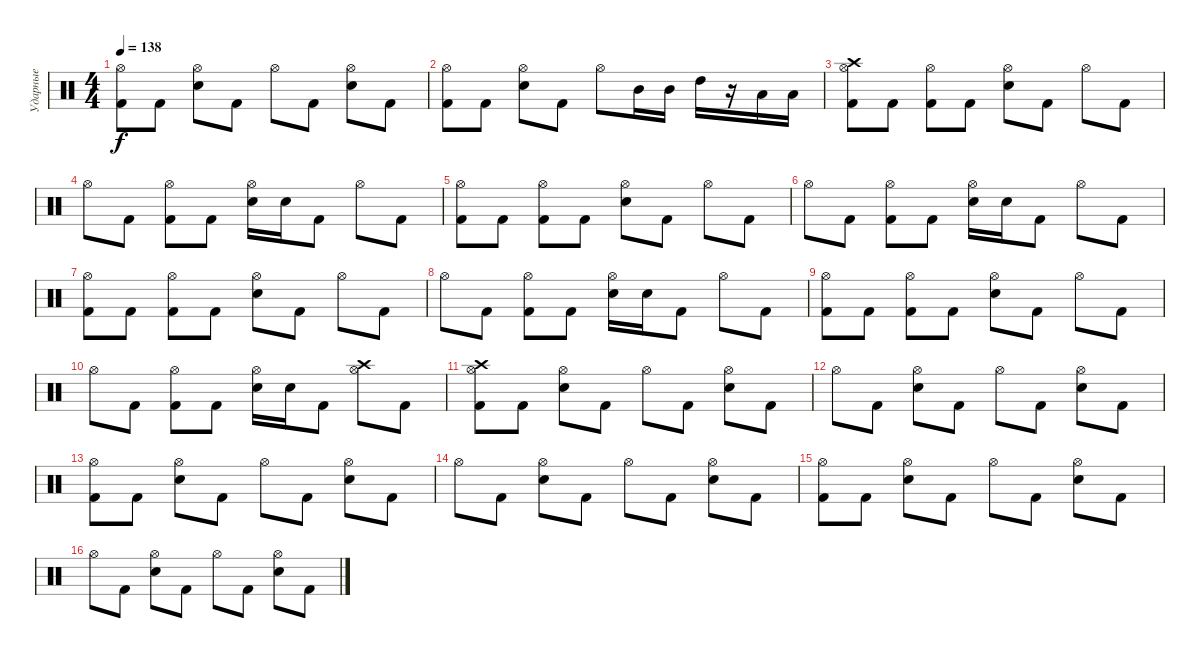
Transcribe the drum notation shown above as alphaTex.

\track ("Ударные" "Ударные") {instrument percussion}
\staff {score}
\articulation defaults
\ts (4 4)
\tempo 138
\clef neutral
\ks c
("Hi-Hat (open)" "Kick (hit) 2").8{dy f} "Kick (hit) 2".8 ("Electric Snare (hit)" "Hi-Hat (open)").8 "Kick (hit) 2".8 "Hi-Hat (open)".8 "Kick (hit) 2".8 ("Electric Snare (hit)" "Hi-Hat (open)").8 "Kick (hit) 2".8 |
("Hi-Hat (open)" "Kick (hit) 2").8 "Kick (hit) 2".8 ("Electric Snare (hit)" "Hi-Hat (open)").8 "Kick (hit) 2".8 "Hi-Hat (open)".8 "Mid Tom (hit)".16 "Mid Tom (hit)".16 "High Tom (hit)".16 r.16 "Low Tom (hit)".16 "Low Tom (hit)".16 |
("Crash high (hit)" "Hi-Hat (open)" "Kick (hit) 2").8 "Kick (hit) 2".8 ("Hi-Hat (open)" "Kick (hit) 2").8 "Kick (hit) 2".8 ("Electric Snare (hit)" "Hi-Hat (open)").8 "Kick (hit) 2".8 "Hi-Hat (open)".8 "Kick (hit) 2".8 |
"Hi-Hat (open)".8 "Kick (hit) 2".8 ("Hi-Hat (open)" "Kick (hit) 2").8 "Kick (hit) 2".8 ("Electric Snare (hit)" "Hi-Hat (open)").16 "Electric Snare (hit)".16 "Kick (hit) 2".8 "Hi-Hat (open)".8 "Kick (hit) 2".8 |
("Hi-Hat (open)" "Kick (hit) 2").8 "Kick (hit) 2".8 ("Hi-Hat (open)" "Kick (hit) 2").8 "Kick (hit) 2".8 ("Electric Snare (hit)" "Hi-Hat (open)").8 "Kick (hit) 2".8 "Hi-Hat (open)".8 "Kick (hit) 2".8 |
"Hi-Hat (open)".8 "Kick (hit) 2".8 ("Hi-Hat (open)" "Kick (hit) 2").8 "Kick (hit) 2".8 ("Electric Snare (hit)" "Hi-Hat (open)").16 "Electric Snare (hit)".16 "Kick (hit) 2".8 "Hi-Hat (open)".8 "Kick (hit) 2".8 |
("Hi-Hat (open)" "Kick (hit) 2").8 "Kick (hit) 2".8 ("Hi-Hat (open)" "Kick (hit) 2").8 "Kick (hit) 2".8 ("Electric Snare (hit)" "Hi-Hat (open)").8 "Kick (hit) 2".8 "Hi-Hat (open)".8 "Kick (hit) 2".8 |
"Hi-Hat (open)".8 "Kick (hit) 2".8 ("Hi-Hat (open)" "Kick (hit) 2").8 "Kick (hit) 2".8 ("Electric Snare (hit)" "Hi-Hat (open)").16 "Electric Snare (hit)".16 "Kick (hit) 2".8 "Hi-Hat (open)".8 "Kick (hit) 2".8 |
("Hi-Hat (open)" "Kick (hit) 2").8 "Kick (hit) 2".8 ("Hi-Hat (open)" "Kick (hit) 2").8 "Kick (hit) 2".8 ("Electric Snare (hit)" "Hi-Hat (open)").8 "Kick (hit) 2".8 "Hi-Hat (open)".8 "Kick (hit) 2".8 |
"Hi-Hat (open)".8 "Kick (hit) 2".8 ("Hi-Hat (open)" "Kick (hit) 2").8 "Kick (hit) 2".8 ("Electric Snare (hit)" "Hi-Hat (open)").16 "Electric Snare (hit)".16 "Kick (hit) 2".8 ("Crash high (hit)" "Hi-Hat (open)").8 "Kick (hit) 2".8 |
("Crash high (hit)" "Hi-Hat (open)" "Kick (hit) 2").8 "Kick (hit) 2".8 ("Electric Snare (hit)" "Hi-Hat (open)").8 "Kick (hit) 2".8 "Hi-Hat (open)".8 "Kick (hit) 2".8 ("Electric Snare (hit)" "Hi-Hat (open)").8 "Kick (hit) 2".8 |
"Hi-Hat (open)".8 "Kick (hit) 2".8 ("Electric Snare (hit)" "Hi-Hat (open)").8 "Kick (hit) 2".8 "Hi-Hat (open)".8 "Kick (hit) 2".8 ("Electric Snare (hit)" "Hi-Hat (open)").8 "Kick (hit) 2".8 |
("Hi-Hat (open)" "Kick (hit) 2").8 "Kick (hit) 2".8 ("Electric Snare (hit)" "Hi-Hat (open)").8 "Kick (hit) 2".8 "Hi-Hat (open)".8 "Kick (hit) 2".8 ("Electric Snare (hit)" "Hi-Hat (open)").8 "Kick (hit) 2".8 |
"Hi-Hat (open)".8 "Kick (hit) 2".8 ("Electric Snare (hit)" "Hi-Hat (open)").8 "Kick (hit) 2".8 "Hi-Hat (open)".8 "Kick (hit) 2".8 ("Electric Snare (hit)" "Hi-Hat (open)").8 "Kick (hit) 2".8 |
("Hi-Hat (open)" "Kick (hit) 2").8 "Kick (hit) 2".8 ("Electric Snare (hit)" "Hi-Hat (open)").8 "Kick (hit) 2".8 "Hi-Hat (open)".8 "Kick (hit) 2".8 ("Electric Snare (hit)" "Hi-Hat (open)").8 "Kick (hit) 2".8 |
"Hi-Hat (open)".8 "Kick (hit) 2".8 ("Electric Snare (hit)" "Hi-Hat (open)").8 "Kick (hit) 2".8 "Hi-Hat (open)".8 "Kick (hit) 2".8 ("Electric Snare (hit)" "Hi-Hat (open)").8 "Kick (hit) 2".8
